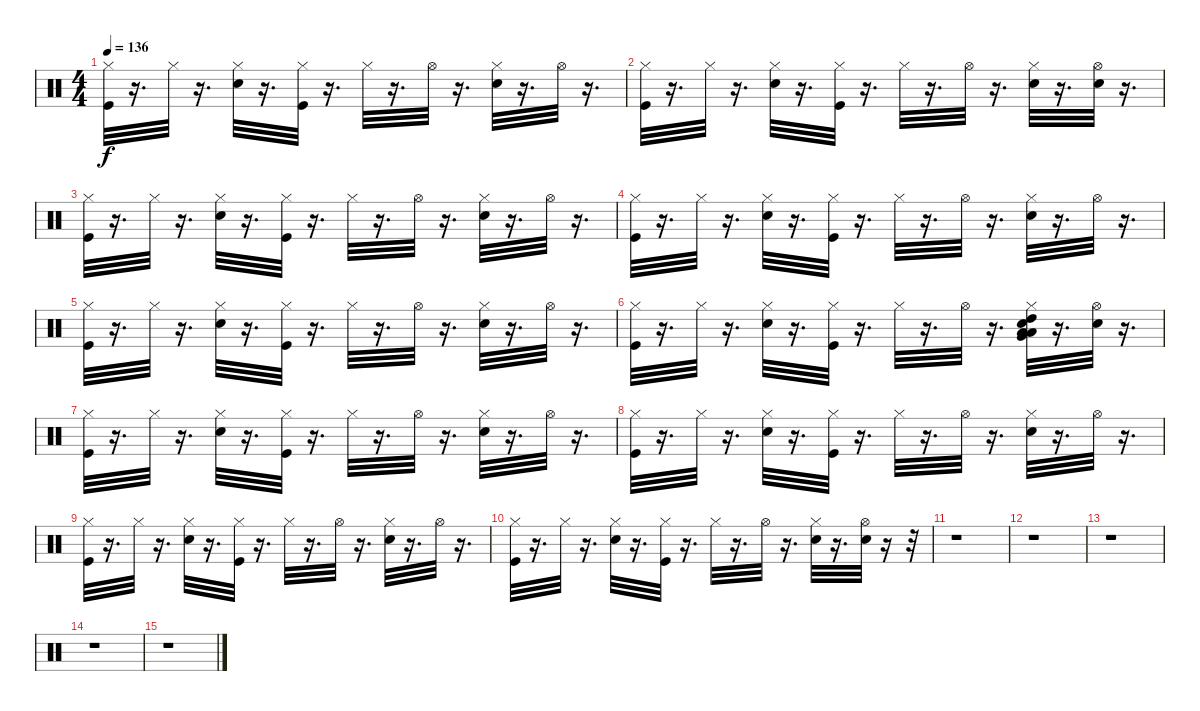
\track "" {instrument percussion}
\staff {score}
\articulation defaults
\ts (4 4)
\tempo 136
\clef neutral
\ks c
("Kick (hit)" "Hi-Hat (closed)").32{dy f} r.16{d} "Hi-Hat (closed)".32 r.16{d} ("Snare (hit) 2" "Hi-Hat (closed)").32 r.16{d} ("Kick (hit)" "Hi-Hat (closed)").32 r.16{d} "Hi-Hat (closed)".32 r.16{d} "Hi-Hat (open)".32 r.16{d} ("Snare (hit) 2" "Hi-Hat (closed)").32 r.16{d} "Hi-Hat (open)".32 r.16{d} |
("Kick (hit)" "Hi-Hat (closed)").32 r.16{d} "Hi-Hat (closed)".32 r.16{d} ("Snare (hit) 2" "Hi-Hat (closed)").32 r.16{d} ("Kick (hit)" "Hi-Hat (closed)").32 r.16{d} "Hi-Hat (closed)".32 r.16{d} "Hi-Hat (open)".32 r.16{d} ("Snare (hit) 2" "Hi-Hat (closed)").32 r.16{d} ("Snare (hit) 2" "Hi-Hat (open)").32 r.16{d} |
("Kick (hit)" "Hi-Hat (closed)").32 r.16{d} "Hi-Hat (closed)".32 r.16{d} ("Snare (hit) 2" "Hi-Hat (closed)").32 r.16{d} ("Kick (hit)" "Hi-Hat (closed)").32 r.16{d} "Hi-Hat (closed)".32 r.16{d} "Hi-Hat (open)".32 r.16{d} ("Snare (hit) 2" "Hi-Hat (closed)").32 r.16{d} "Hi-Hat (open)".32 r.16{d} |
("Kick (hit)" "Hi-Hat (closed)").32 r.16{d} "Hi-Hat (closed)".32 r.16{d} ("Snare (hit) 2" "Hi-Hat (closed)").32 r.16{d} ("Kick (hit)" "Hi-Hat (closed)").32 r.16{d} "Hi-Hat (closed)".32 r.16{d} "Hi-Hat (open)".32 r.16{d} ("Snare (hit) 2" "Hi-Hat (closed)").32 r.16{d} "Hi-Hat (open)".32 r.16{d} |
("Kick (hit)" "Hi-Hat (closed)").32 r.16{d} "Hi-Hat (closed)".32 r.16{d} ("Snare (hit) 2" "Hi-Hat (closed)").32 r.16{d} ("Kick (hit)" "Hi-Hat (closed)").32 r.16{d} "Hi-Hat (closed)".32 r.16{d} "Hi-Hat (open)".32 r.16{d} ("Snare (hit) 2" "Hi-Hat (closed)").32 r.16{d} "Hi-Hat (open)".32 r.16{d} |
("Kick (hit)" "Hi-Hat (closed)").32 r.16{d} "Hi-Hat (closed)".32 r.16{d} ("Snare (hit) 2" "Hi-Hat (closed)").32 r.16{d} ("Kick (hit)" "Hi-Hat (closed)").32 r.16{d} "Hi-Hat (closed)".32 r.16{d} "Hi-Hat (open)".32 r.16{d} ("High Tom (hit)" "Low Tom (hit)" "Very Low Tom (hit)" "Low Floor Tom (hit)" "Snare (hit) 2" "Hi-Hat (closed)").32 r.16{d} ("Snare (hit) 2" "Hi-Hat (open)").32 r.16{d} |
("Kick (hit)" "Hi-Hat (closed)").32 r.16{d} "Hi-Hat (closed)".32 r.16{d} ("Snare (hit) 2" "Hi-Hat (closed)").32 r.16{d} ("Kick (hit)" "Hi-Hat (closed)").32 r.16{d} "Hi-Hat (closed)".32 r.16{d} "Hi-Hat (open)".32 r.16{d} ("Snare (hit) 2" "Hi-Hat (closed)").32 r.16{d} "Hi-Hat (open)".32 r.16{d} |
("Kick (hit)" "Hi-Hat (closed)").32 r.16{d} "Hi-Hat (closed)".32 r.16{d} ("Snare (hit) 2" "Hi-Hat (closed)").32 r.16{d} ("Kick (hit)" "Hi-Hat (closed)").32 r.16{d} "Hi-Hat (closed)".32 r.16{d} "Hi-Hat (open)".32 r.16{d} ("Snare (hit) 2" "Hi-Hat (closed)").32 r.16{d} "Hi-Hat (open)".32 r.16{d} |
("Kick (hit)" "Hi-Hat (closed)").32 r.16{d} "Hi-Hat (closed)".32 r.16{d} ("Snare (hit) 2" "Hi-Hat (closed)").32 r.16{d} ("Kick (hit)" "Hi-Hat (closed)").32 r.16{d} "Hi-Hat (closed)".32 r.16{d} "Hi-Hat (open)".32 r.16{d} ("Snare (hit) 2" "Hi-Hat (closed)").32 r.16{d} "Hi-Hat (open)".32 r.16{d} |
("Kick (hit)" "Hi-Hat (closed)").32 r.16{d} "Hi-Hat (closed)".32 r.16{d} ("Snare (hit) 2" "Hi-Hat (closed)").32 r.16{d} ("Kick (hit)" "Hi-Hat (closed)").32 r.16{d} "Hi-Hat (closed)".32 r.16{d} "Hi-Hat (open)".32 r.16{d} ("Snare (hit) 2" "Hi-Hat (closed)").32 r.16{d} ("Snare (hit) 2" "Hi-Hat (open)").32 r.16 r.32 |
r.1 |
r.1 |
r.1 |
r.1 |
r.1
